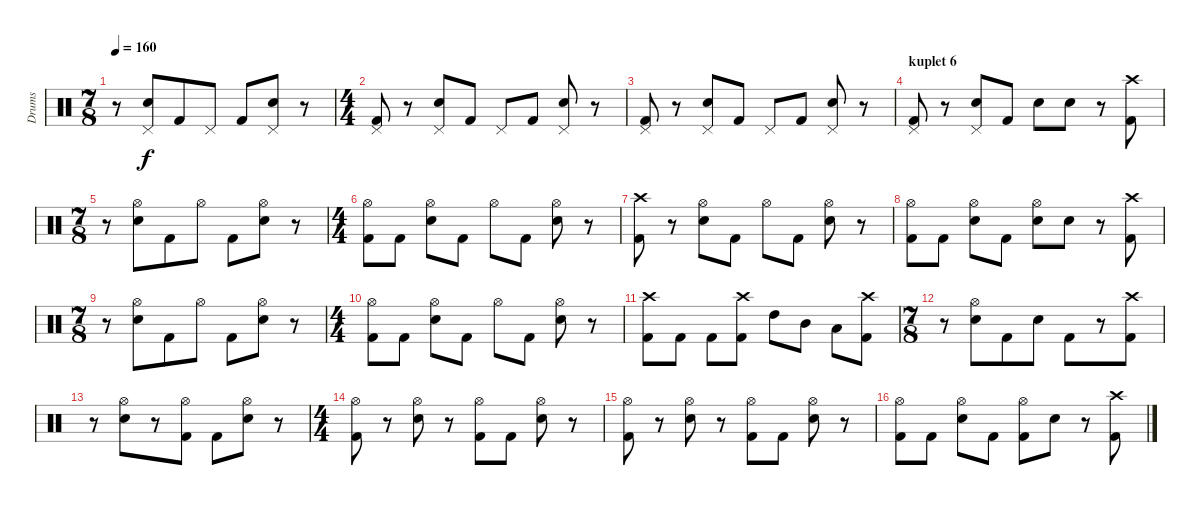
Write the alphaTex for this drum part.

\track ("Drums" "Drums") {instrument percussion}
\staff {score}
\articulation defaults
\ts (7 8)
\tempo 160
\clef neutral
\ks c
r.8{dy f} ("Snare (hit) 2" "Pedal Hi-Hat (hit)").8 "Kick (hit) 2".8 "Pedal Hi-Hat (hit)".8 "Kick (hit) 2".8 ("Snare (hit) 2" "Pedal Hi-Hat (hit)").8 r.8 |
\ts (4 4)
("Kick (hit) 2" "Pedal Hi-Hat (hit)").8 r.8 ("Snare (hit) 2" "Pedal Hi-Hat (hit)").8 "Kick (hit) 2".8 "Pedal Hi-Hat (hit)".8 "Kick (hit) 2".8 ("Snare (hit) 2" "Pedal Hi-Hat (hit)").8 r.8 |
("Kick (hit) 2" "Pedal Hi-Hat (hit)").8 r.8 ("Snare (hit) 2" "Pedal Hi-Hat (hit)").8 "Kick (hit) 2".8 "Pedal Hi-Hat (hit)".8 "Kick (hit) 2".8 ("Snare (hit) 2" "Pedal Hi-Hat (hit)").8 r.8 |
\section ("" "kuplet 6")
("Kick (hit) 2" "Pedal Hi-Hat (hit)").8 r.8 ("Snare (hit) 2" "Pedal Hi-Hat (hit)").8 "Kick (hit) 2".8 "Snare (hit) 2".8 "Snare (hit) 2".8 r.8 ("Kick (hit) 2" "Crash high (hit)").8 |
\ts (7 8)
r.8 ("Snare (hit) 2" "Hi-Hat (open)").8 "Kick (hit) 2".8 "Hi-Hat (open)".8 "Kick (hit) 2".8 ("Snare (hit) 2" "Hi-Hat (open)").8 r.8 |
\ts (4 4)
("Kick (hit) 2" "Hi-Hat (open)").8 "Kick (hit) 2".8 ("Snare (hit) 2" "Hi-Hat (open)").8 "Kick (hit) 2".8 "Hi-Hat (open)".8 "Kick (hit) 2".8 ("Snare (hit) 2" "Hi-Hat (open)").8 r.8 |
("Kick (hit) 2" "Crash high (hit)").8 r.8 ("Snare (hit) 2" "Hi-Hat (open)").8 "Kick (hit) 2".8 "Hi-Hat (open)".8 "Kick (hit) 2".8 ("Snare (hit) 2" "Hi-Hat (open)").8 r.8 |
("Kick (hit) 2" "Hi-Hat (open)").8 "Kick (hit) 2".8 ("Snare (hit) 2" "Hi-Hat (open)").8 "Kick (hit) 2".8 ("Snare (hit) 2" "Hi-Hat (open)").8 "Snare (hit) 2".8 r.8 ("Kick (hit) 2" "Crash high (hit)").8 |
\ts (7 8)
r.8 ("Snare (hit) 2" "Hi-Hat (open)").8 "Kick (hit) 2".8 "Hi-Hat (open)".8 "Kick (hit) 2".8 ("Snare (hit) 2" "Hi-Hat (open)").8 r.8 |
\ts (4 4)
("Kick (hit) 2" "Hi-Hat (open)").8 "Kick (hit) 2".8 ("Snare (hit) 2" "Hi-Hat (open)").8 "Kick (hit) 2".8 "Hi-Hat (open)".8 "Kick (hit) 2".8 ("Snare (hit) 2" "Hi-Hat (open)").8 r.8 |
("Kick (hit) 2" "Crash high (hit)").8 "Kick (hit) 2".8 "Kick (hit) 2".8 ("Kick (hit) 2" "Crash high (hit)").8 "High Tom (hit)".8 "Mid Tom (hit)".8 "Low Tom (hit)".8 ("Kick (hit) 2" "Crash high (hit)").8 |
\ts (7 8)
r.8 ("Snare (hit) 2" "Hi-Hat (open)").8 "Kick (hit) 2".8 "Snare (hit) 2".8 "Kick (hit) 2".8 r.8 ("Kick (hit) 2" "Crash high (hit)").8 |
r.8 ("Snare (hit) 2" "Hi-Hat (open)").8 r.8 ("Kick (hit) 2" "Hi-Hat (open)").8 "Kick (hit) 2".8 ("Snare (hit) 2" "Hi-Hat (open)").8 r.8 |
\ts (4 4)
("Kick (hit) 2" "Hi-Hat (open)").8 r.8 ("Snare (hit) 2" "Hi-Hat (open)").8 r.8 ("Kick (hit) 2" "Hi-Hat (open)").8 "Kick (hit) 2".8 ("Snare (hit) 2" "Hi-Hat (open)").8 r.8 |
("Kick (hit) 2" "Hi-Hat (open)").8 r.8 ("Snare (hit) 2" "Hi-Hat (open)").8 r.8 ("Kick (hit) 2" "Hi-Hat (open)").8 "Kick (hit) 2".8 ("Snare (hit) 2" "Hi-Hat (open)").8 r.8 |
("Kick (hit) 2" "Hi-Hat (open)").8 "Kick (hit) 2".8 ("Snare (hit) 2" "Hi-Hat (open)").8 "Kick (hit) 2".8 ("Kick (hit) 2" "Hi-Hat (open)").8 "Snare (hit) 2".8 r.8 ("Kick (hit) 2" "Crash high (hit)").8
